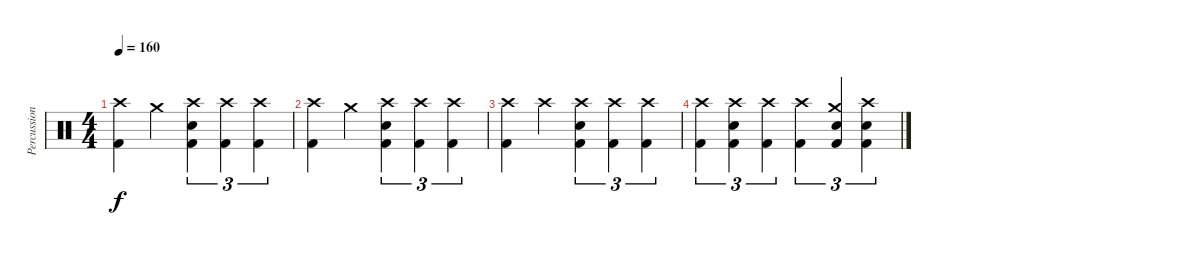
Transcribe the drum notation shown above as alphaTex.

\track ("Percussion" "Percussion") {instrument percussion}
\staff {score}
\articulation defaults
\ts (4 4)
\tempo 160
\clef neutral
\ks c
("Crash high (hit)" "Kick (hit) 2").4{dy f} "Crash medium (hit)".4 ("Crash high (hit)" "Electric Snare (hit)" "Kick (hit) 2").4{tu (3 2)} ("Crash high (hit)" "Kick (hit) 2").4{tu (3 2)} ("Crash high (hit)" "Kick (hit) 2").4{tu (3 2)} |
("Crash high (hit)" "Kick (hit) 2").4 "Crash medium (hit)".4 ("Crash high (hit)" "Electric Snare (hit)" "Kick (hit) 2").4{tu (3 2)} ("Crash high (hit)" "Kick (hit) 2").4{tu (3 2)} ("Crash high (hit)" "Kick (hit) 2").4{tu (3 2)} |
("Crash high (hit)" "Kick (hit) 2").4 "Crash high (hit)".4 ("Crash high (hit)" "Electric Snare (hit)" "Kick (hit) 2").4{tu (3 2)} ("Crash high (hit)" "Kick (hit) 2").4{tu (3 2)} ("Crash high (hit)" "Kick (hit) 2").4{tu (3 2)} |
("Crash high (hit)" "Kick (hit) 2").4{tu (3 2)} ("Crash high (hit)" "Electric Snare (hit)" "Kick (hit) 2").4{tu (3 2)} ("Crash high (hit)" "Kick (hit) 2").4{tu (3 2)} ("Crash high (hit)" "Kick (hit) 2").4{tu (3 2)} ("Crash medium (hit)" "Electric Snare (hit)" "Kick (hit) 2").4{tu (3 2)} ("Crash high (hit)" "Electric Snare (hit)" "Kick (hit) 2").4{tu (3 2)}
